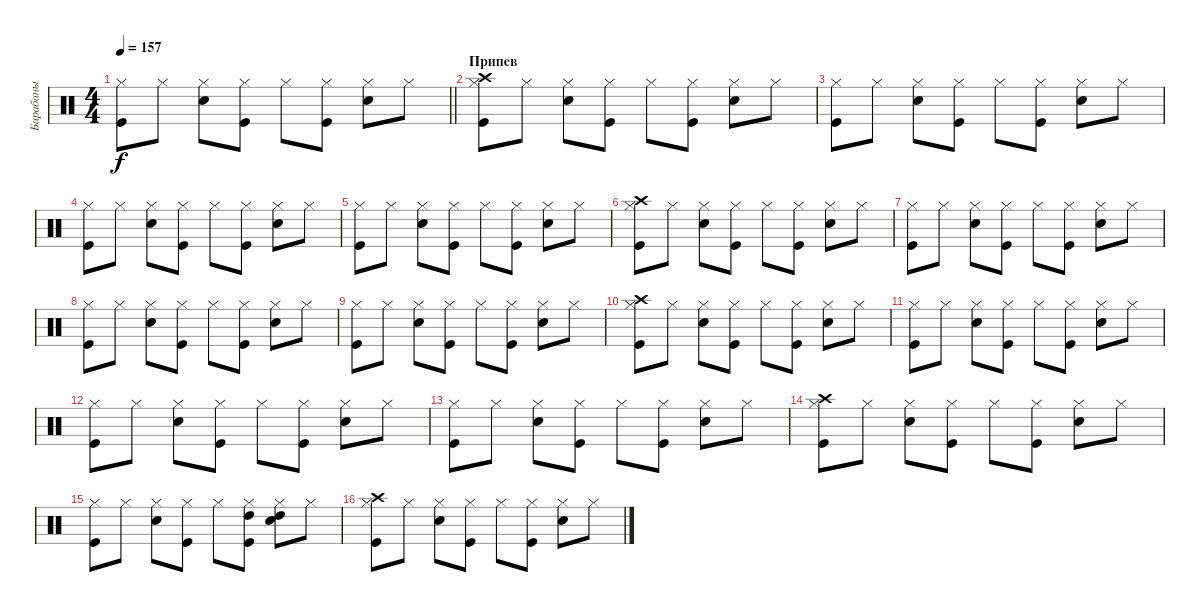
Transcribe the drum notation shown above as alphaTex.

\track ("Барабаны" "Барабаны") {instrument percussion}
\staff {score}
\articulation defaults
\ts (4 4)
\tempo 157
\clef neutral
\barLineRight lightlight
\ks c
("Kick (hit)" "Hi-Hat (closed)").8{dy f} "Hi-Hat (closed)".8 ("Snare (hit) 2" "Hi-Hat (closed)").8 ("Kick (hit)" "Hi-Hat (closed)").8 "Hi-Hat (closed)".8 ("Kick (hit)" "Hi-Hat (closed)").8 ("Snare (hit) 2" "Hi-Hat (closed)").8 "Hi-Hat (closed)".8 |
\section ("" "Припев")
("Kick (hit)" "Hi-Hat (closed)" "Crash high (hit)").8 "Hi-Hat (closed)".8 ("Snare (hit) 2" "Hi-Hat (closed)").8 ("Kick (hit)" "Hi-Hat (closed)").8 "Hi-Hat (closed)".8 ("Kick (hit)" "Hi-Hat (closed)").8 ("Snare (hit) 2" "Hi-Hat (closed)").8 "Hi-Hat (closed)".8 |
("Kick (hit)" "Hi-Hat (closed)").8 "Hi-Hat (closed)".8 ("Snare (hit) 2" "Hi-Hat (closed)").8 ("Kick (hit)" "Hi-Hat (closed)").8 "Hi-Hat (closed)".8 ("Kick (hit)" "Hi-Hat (closed)").8 ("Snare (hit) 2" "Hi-Hat (closed)").8 "Hi-Hat (closed)".8 |
("Kick (hit)" "Hi-Hat (closed)").8 "Hi-Hat (closed)".8 ("Snare (hit) 2" "Hi-Hat (closed)").8 ("Kick (hit)" "Hi-Hat (closed)").8 "Hi-Hat (closed)".8 ("Kick (hit)" "Hi-Hat (closed)").8 ("Snare (hit) 2" "Hi-Hat (closed)").8 "Hi-Hat (closed)".8 |
("Kick (hit)" "Hi-Hat (closed)").8 "Hi-Hat (closed)".8 ("Snare (hit) 2" "Hi-Hat (closed)").8 ("Kick (hit)" "Hi-Hat (closed)").8 "Hi-Hat (closed)".8 ("Kick (hit)" "Hi-Hat (closed)").8 ("Snare (hit) 2" "Hi-Hat (closed)").8 "Hi-Hat (closed)".8 |
("Kick (hit)" "Hi-Hat (closed)" "Crash high (hit)").8 "Hi-Hat (closed)".8 ("Snare (hit) 2" "Hi-Hat (closed)").8 ("Kick (hit)" "Hi-Hat (closed)").8 "Hi-Hat (closed)".8 ("Kick (hit)" "Hi-Hat (closed)").8 ("Snare (hit) 2" "Hi-Hat (closed)").8 "Hi-Hat (closed)".8 |
("Kick (hit)" "Hi-Hat (closed)").8 "Hi-Hat (closed)".8 ("Snare (hit) 2" "Hi-Hat (closed)").8 ("Kick (hit)" "Hi-Hat (closed)").8 "Hi-Hat (closed)".8 ("Kick (hit)" "Hi-Hat (closed)").8 ("Snare (hit) 2" "Hi-Hat (closed)").8 "Hi-Hat (closed)".8 |
("Kick (hit)" "Hi-Hat (closed)").8 "Hi-Hat (closed)".8 ("Snare (hit) 2" "Hi-Hat (closed)").8 ("Kick (hit)" "Hi-Hat (closed)").8 "Hi-Hat (closed)".8 ("Kick (hit)" "Hi-Hat (closed)").8 ("Snare (hit) 2" "Hi-Hat (closed)").8 "Hi-Hat (closed)".8 |
("Kick (hit)" "Hi-Hat (closed)").8 "Hi-Hat (closed)".8 ("Snare (hit) 2" "Hi-Hat (closed)").8 ("Kick (hit)" "Hi-Hat (closed)").8 "Hi-Hat (closed)".8 ("Kick (hit)" "Hi-Hat (closed)").8 ("Snare (hit) 2" "Hi-Hat (closed)").8 "Hi-Hat (closed)".8 |
("Kick (hit)" "Hi-Hat (closed)" "Crash high (hit)").8 "Hi-Hat (closed)".8 ("Snare (hit) 2" "Hi-Hat (closed)").8 ("Kick (hit)" "Hi-Hat (closed)").8 "Hi-Hat (closed)".8 ("Kick (hit)" "Hi-Hat (closed)").8 ("Snare (hit) 2" "Hi-Hat (closed)").8 "Hi-Hat (closed)".8 |
("Kick (hit)" "Hi-Hat (closed)").8 "Hi-Hat (closed)".8 ("Snare (hit) 2" "Hi-Hat (closed)").8 ("Kick (hit)" "Hi-Hat (closed)").8 "Hi-Hat (closed)".8 ("Kick (hit)" "Hi-Hat (closed)").8 ("Snare (hit) 2" "Hi-Hat (closed)").8 "Hi-Hat (closed)".8 |
("Kick (hit)" "Hi-Hat (closed)").8 "Hi-Hat (closed)".8 ("Snare (hit) 2" "Hi-Hat (closed)").8 ("Kick (hit)" "Hi-Hat (closed)").8 "Hi-Hat (closed)".8 ("Kick (hit)" "Hi-Hat (closed)").8 ("Snare (hit) 2" "Hi-Hat (closed)").8 "Hi-Hat (closed)".8 |
("Kick (hit)" "Hi-Hat (closed)").8 "Hi-Hat (closed)".8 ("Snare (hit) 2" "Hi-Hat (closed)").8 ("Kick (hit)" "Hi-Hat (closed)").8 "Hi-Hat (closed)".8 ("Kick (hit)" "Hi-Hat (closed)").8 ("Snare (hit) 2" "Hi-Hat (closed)").8 "Hi-Hat (closed)".8 |
("Kick (hit)" "Hi-Hat (closed)" "Crash high (hit)").8 "Hi-Hat (closed)".8 ("Snare (hit) 2" "Hi-Hat (closed)").8 ("Kick (hit)" "Hi-Hat (closed)").8 "Hi-Hat (closed)".8 ("Kick (hit)" "Hi-Hat (closed)").8 ("Snare (hit) 2" "Hi-Hat (closed)").8 "Hi-Hat (closed)".8 |
("Kick (hit)" "Hi-Hat (closed)").8 "Hi-Hat (closed)".8 ("Snare (hit) 2" "Hi-Hat (closed)").8 ("Kick (hit)" "Hi-Hat (closed)").8 "Hi-Hat (closed)".8 ("Kick (hit)" "Hi-Hat (closed)" "High Tom (hit)").8 ("Snare (hit) 2" "Hi-Hat (closed)" "High Tom (hit)").8 "Hi-Hat (closed)".8 |
("Kick (hit)" "Hi-Hat (closed)" "Crash high (hit)").8 "Hi-Hat (closed)".8 ("Snare (hit) 2" "Hi-Hat (closed)").8 ("Kick (hit)" "Hi-Hat (closed)").8 "Hi-Hat (closed)".8 ("Kick (hit)" "Hi-Hat (closed)").8 ("Snare (hit) 2" "Hi-Hat (closed)").8 "Hi-Hat (closed)".8
